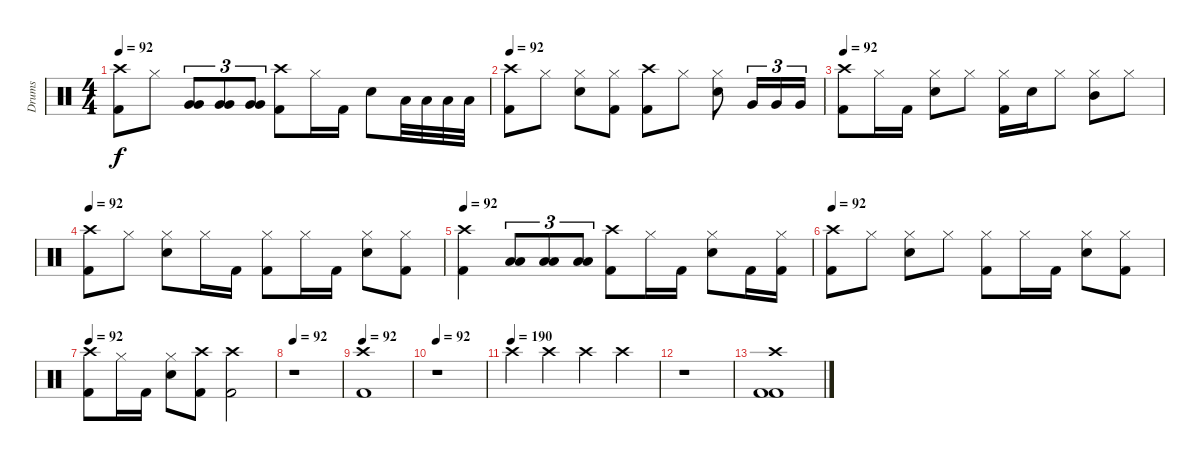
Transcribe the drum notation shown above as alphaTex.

\track ("Drums" "Drums") {instrument percussion}
\staff {score}
\articulation defaults
\ts (4 4)
\tempo 92
\clef neutral
\ks c
("Crash high (hit)" "Kick (hit) 2").8{dy f} "Hi-Hat (closed)".8 ("Very Low Tom (hit)" "Very Low Tom (hit)").8{tu (3 2)} ("Very Low Tom (hit)" "Very Low Tom (hit)").8{tu (3 2)} ("Very Low Tom (hit)" "Very Low Tom (hit)").8{tu (3 2)} ("Crash high (hit)" "Kick (hit) 2").8 "Hi-Hat (closed)".16 "Kick (hit) 2".16 "Electric Snare (hit)".8 "Low Tom (hit)".32 "Low Tom (hit)".32 "Low Tom (hit)".32 "Low Tom (hit)".32 |
\tempo 92
("Crash high (hit)" "Kick (hit) 2").8 "Hi-Hat (closed)".8 ("Hi-Hat (closed)" "Electric Snare (hit)").8 ("Hi-Hat (closed)" "Kick (hit) 2").8 ("Crash high (hit)" "Kick (hit) 2").8 "Hi-Hat (closed)".8 ("Hi-Hat (closed)" "Electric Snare (hit)").8 "Very Low Tom (hit)".16{tu (3 2)} "Very Low Tom (hit)".16{tu (3 2)} "Very Low Tom (hit)".16{tu (3 2)} |
\tempo 92
("Crash high (hit)" "Kick (hit) 2").8 "Hi-Hat (closed)".16 "Kick (hit) 2".16 ("Hi-Hat (closed)" "Electric Snare (hit)").8 "Hi-Hat (closed)".8 ("Hi-Hat (closed)" "Kick (hit) 2").16 "Electric Snare (hit)".16 "Hi-Hat (closed)".8 ("Hi-Hat (closed)" "Mid Tom (hit)").8 "Hi-Hat (closed)".8 |
\tempo 92
("Crash high (hit)" "Kick (hit) 2").8 "Hi-Hat (closed)".8 ("Hi-Hat (closed)" "Electric Snare (hit)").8 "Hi-Hat (closed)".16 "Kick (hit) 2".16 ("Hi-Hat (closed)" "Kick (hit) 2").8 "Hi-Hat (closed)".16 "Kick (hit) 2".16 ("Hi-Hat (closed)" "Electric Snare (hit)").8 ("Hi-Hat (closed)" "Kick (hit) 2").8 |
\tempo 92
("Crash high (hit)" "Kick (hit) 2").4 ("Low Tom (hit)" "Low Tom (hit)").8{tu (3 2)} ("Low Tom (hit)" "Low Tom (hit)").8{tu (3 2)} ("Low Tom (hit)" "Low Tom (hit)").8{tu (3 2)} ("Crash high (hit)" "Kick (hit) 2").8 "Hi-Hat (closed)".16 "Kick (hit) 2".16 ("Hi-Hat (closed)" "Electric Snare (hit)").8 "Kick (hit) 2".16 ("Hi-Hat (closed)" "Kick (hit) 2").16 |
\tempo 92
("Crash high (hit)" "Kick (hit) 2").8 "Hi-Hat (closed)".8 ("Hi-Hat (closed)" "Electric Snare (hit)").8 "Hi-Hat (closed)".8 ("Hi-Hat (closed)" "Kick (hit) 2").8 "Hi-Hat (closed)".16 "Kick (hit) 2".16 ("Hi-Hat (closed)" "Electric Snare (hit)").8 ("Hi-Hat (closed)" "Kick (hit) 2").8 |
\tempo 92
("Crash high (hit)" "Kick (hit) 2").8 "Hi-Hat (closed)".16 "Kick (hit) 2".16 ("Hi-Hat (closed)" "Electric Snare (hit)").8 ("Crash high (hit)" "Kick (hit) 2").8 ("Crash high (hit)" "Kick (hit) 2").2 |
\tempo 92
r.1 |
\tempo 92
("Crash high (hit)" "Kick (hit) 2").1 |
\tempo 92
r.1 |
\tempo (190)
"Crash high (hit)".4 "Crash high (hit)".4 "Crash high (hit)".4 "Crash high (hit)".4 |
r.1 |
("Crash high (hit)" "Kick (hit) 2" "Kick (hit) 2").1
